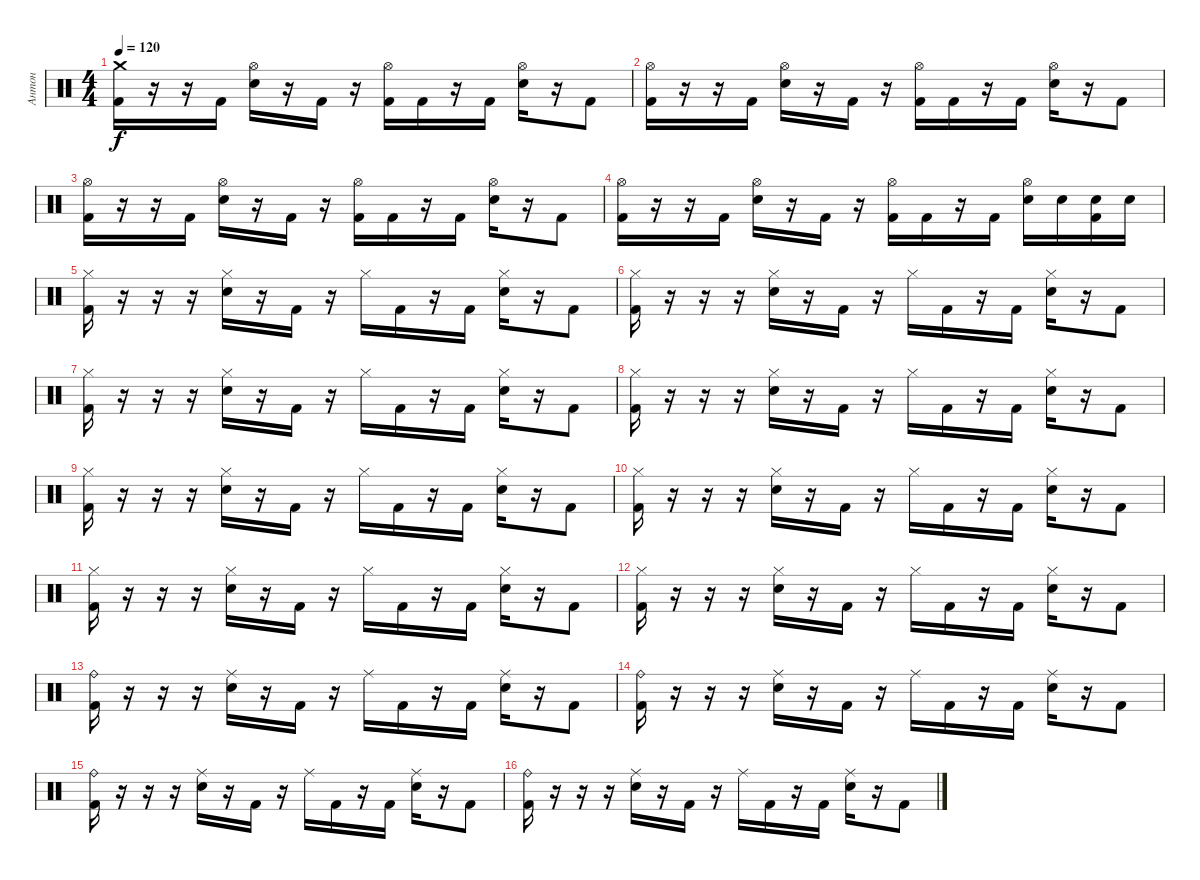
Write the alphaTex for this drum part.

\track ("Антон" "Антон") {instrument percussion}
\staff {score}
\articulation defaults
\ts (4 4)
\tempo 120
\clef neutral
\ks c
("Crash medium (hit)" "Kick (hit) 2").16{dy f} r.16 r.16 "Kick (hit) 2".16 ("Hi-Hat (open)" "Electric Snare (hit)").16 r.16 "Kick (hit) 2".16 r.16 ("Hi-Hat (open)" "Kick (hit) 2").16 "Kick (hit) 2".16 r.16 "Kick (hit) 2".16 ("Hi-Hat (open)" "Electric Snare (hit)").16 r.16 "Kick (hit) 2".8 |
("Hi-Hat (open)" "Kick (hit) 2").16 r.16 r.16 "Kick (hit) 2".16 ("Hi-Hat (open)" "Electric Snare (hit)").16 r.16 "Kick (hit) 2".16 r.16 ("Hi-Hat (open)" "Kick (hit) 2").16 "Kick (hit) 2".16 r.16 "Kick (hit) 2".16 ("Hi-Hat (open)" "Electric Snare (hit)").16 r.16 "Kick (hit) 2".8 |
("Hi-Hat (open)" "Kick (hit) 2").16 r.16 r.16 "Kick (hit) 2".16 ("Hi-Hat (open)" "Electric Snare (hit)").16 r.16 "Kick (hit) 2".16 r.16 ("Hi-Hat (open)" "Kick (hit) 2").16 "Kick (hit) 2".16 r.16 "Kick (hit) 2".16 ("Hi-Hat (open)" "Electric Snare (hit)").16 r.16 "Kick (hit) 2".8 |
("Hi-Hat (open)" "Kick (hit) 2").16 r.16 r.16 "Kick (hit) 2".16 ("Hi-Hat (open)" "Electric Snare (hit)").16 r.16 "Kick (hit) 2".16 r.16 ("Hi-Hat (open)" "Kick (hit) 2").16 "Kick (hit) 2".16 r.16 "Kick (hit) 2".16 ("Hi-Hat (open)" "Electric Snare (hit)").16 "Electric Snare (hit)".16 ("Electric Snare (hit)" "Kick (hit) 2").16 "Electric Snare (hit)".16 |
("Hi-Hat (closed)" "Kick (hit) 2").16 r.16 r.16 r.16 ("Hi-Hat (closed)" "Electric Snare (hit)").16 r.16 "Kick (hit) 2".16 r.16 "Hi-Hat (closed)".16 "Kick (hit) 2".16 r.16 "Kick (hit) 2".16 ("Hi-Hat (closed)" "Electric Snare (hit)").16 r.16 "Kick (hit) 2".8 |
("Hi-Hat (closed)" "Kick (hit) 2").16 r.16 r.16 r.16 ("Hi-Hat (closed)" "Electric Snare (hit)").16 r.16 "Kick (hit) 2".16 r.16 "Hi-Hat (closed)".16 "Kick (hit) 2".16 r.16 "Kick (hit) 2".16 ("Hi-Hat (closed)" "Electric Snare (hit)").16 r.16 "Kick (hit) 2".8 |
("Hi-Hat (closed)" "Kick (hit) 2").16 r.16 r.16 r.16 ("Hi-Hat (closed)" "Electric Snare (hit)").16 r.16 "Kick (hit) 2".16 r.16 "Hi-Hat (closed)".16 "Kick (hit) 2".16 r.16 "Kick (hit) 2".16 ("Hi-Hat (closed)" "Electric Snare (hit)").16 r.16 "Kick (hit) 2".8 |
("Hi-Hat (closed)" "Kick (hit) 2").16 r.16 r.16 r.16 ("Hi-Hat (closed)" "Electric Snare (hit)").16 r.16 "Kick (hit) 2".16 r.16 "Hi-Hat (closed)".16 "Kick (hit) 2".16 r.16 "Kick (hit) 2".16 ("Hi-Hat (closed)" "Electric Snare (hit)").16 r.16 "Kick (hit) 2".8 |
("Hi-Hat (closed)" "Kick (hit) 2").16 r.16 r.16 r.16 ("Hi-Hat (closed)" "Electric Snare (hit)").16 r.16 "Kick (hit) 2".16 r.16 "Hi-Hat (closed)".16 "Kick (hit) 2".16 r.16 "Kick (hit) 2".16 ("Hi-Hat (closed)" "Electric Snare (hit)").16 r.16 "Kick (hit) 2".8 |
("Hi-Hat (closed)" "Kick (hit) 2").16 r.16 r.16 r.16 ("Hi-Hat (closed)" "Electric Snare (hit)").16 r.16 "Kick (hit) 2".16 r.16 "Hi-Hat (closed)".16 "Kick (hit) 2".16 r.16 "Kick (hit) 2".16 ("Hi-Hat (closed)" "Electric Snare (hit)").16 r.16 "Kick (hit) 2".8 |
("Hi-Hat (closed)" "Kick (hit) 2").16 r.16 r.16 r.16 ("Hi-Hat (closed)" "Electric Snare (hit)").16 r.16 "Kick (hit) 2".16 r.16 "Hi-Hat (closed)".16 "Kick (hit) 2".16 r.16 "Kick (hit) 2".16 ("Hi-Hat (closed)" "Electric Snare (hit)").16 r.16 "Kick (hit) 2".8 |
("Hi-Hat (closed)" "Kick (hit) 2").16 r.16 r.16 r.16 ("Hi-Hat (closed)" "Electric Snare (hit)").16 r.16 "Kick (hit) 2".16 r.16 "Hi-Hat (closed)".16 "Kick (hit) 2".16 r.16 "Kick (hit) 2".16 ("Hi-Hat (closed)" "Electric Snare (hit)").16 r.16 "Kick (hit) 2".8 |
("Ride (bell)" "Kick (hit) 2").16 r.16 r.16 r.16 ("Ride (middle)" "Electric Snare (hit)").16 r.16 "Kick (hit) 2".16 r.16 "Ride (middle)".16 "Kick (hit) 2".16 r.16 "Kick (hit) 2".16 ("Ride (middle)" "Electric Snare (hit)").16 r.16 "Kick (hit) 2".8 |
("Ride (bell)" "Kick (hit) 2").16 r.16 r.16 r.16 ("Ride (middle)" "Electric Snare (hit)").16 r.16 "Kick (hit) 2".16 r.16 "Ride (middle)".16 "Kick (hit) 2".16 r.16 "Kick (hit) 2".16 ("Ride (middle)" "Electric Snare (hit)").16 r.16 "Kick (hit) 2".8 |
("Ride (bell)" "Kick (hit) 2").16 r.16 r.16 r.16 ("Ride (middle)" "Electric Snare (hit)").16 r.16 "Kick (hit) 2".16 r.16 "Ride (middle)".16 "Kick (hit) 2".16 r.16 "Kick (hit) 2".16 ("Ride (middle)" "Electric Snare (hit)").16 r.16 "Kick (hit) 2".8 |
("Ride (bell)" "Kick (hit) 2").16 r.16 r.16 r.16 ("Ride (middle)" "Electric Snare (hit)").16 r.16 "Kick (hit) 2".16 r.16 "Ride (middle)".16 "Kick (hit) 2".16 r.16 "Kick (hit) 2".16 ("Ride (middle)" "Electric Snare (hit)").16 r.16 "Kick (hit) 2".8
